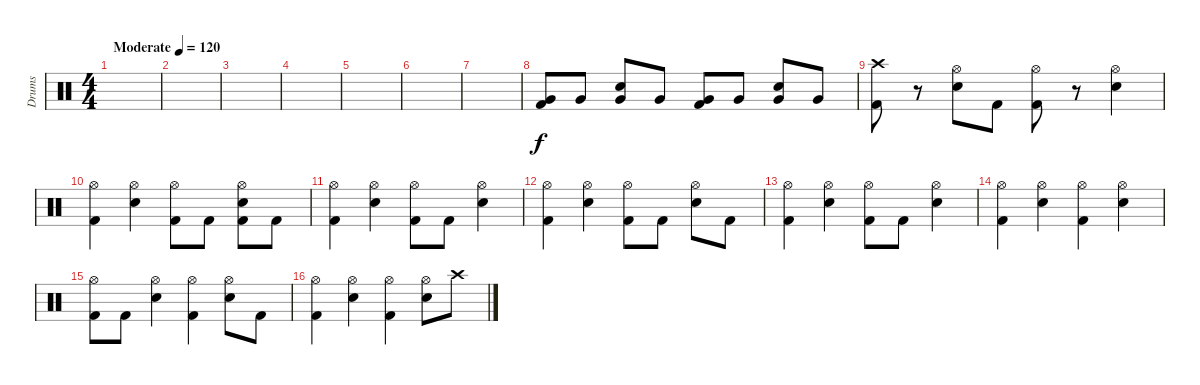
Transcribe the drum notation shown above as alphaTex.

\track ("Drums" "Drums") {instrument percussion}
\staff {score}
\articulation defaults
\ts (4 4)
\tempo (120 "Moderate")
\clef neutral
\ks c
|
|
|
|
|
|
|
("Very Low Tom (hit)" "Kick (hit) 2").8 "Very Low Tom (hit)".8 ("Very Low Tom (hit)" "Electric Snare (hit)").8 "Very Low Tom (hit)".8 ("Very Low Tom (hit)" "Kick (hit) 2").8 "Very Low Tom (hit)".8 ("Very Low Tom (hit)" "Electric Snare (hit)").8 "Very Low Tom (hit)".8 |
("Crash high (hit)" "Kick (hit) 2").8 r.8 ("Hi-Hat (open)" "Electric Snare (hit)").8 "Kick (hit) 2".8 ("Hi-Hat (open)" "Kick (hit) 2").8 r.8 ("Hi-Hat (open)" "Electric Snare (hit)").4 |
("Hi-Hat (open)" "Kick (hit) 2").4 ("Hi-Hat (open)" "Electric Snare (hit)").4 ("Hi-Hat (open)" "Kick (hit) 2").8 "Kick (hit) 2".8 ("Hi-Hat (open)" "Electric Snare (hit)" "Kick (hit) 2").8 "Kick (hit) 2".8 |
("Hi-Hat (open)" "Kick (hit) 2").4 ("Hi-Hat (open)" "Electric Snare (hit)").4 ("Hi-Hat (open)" "Kick (hit) 2").8 "Kick (hit) 2".8 ("Hi-Hat (open)" "Electric Snare (hit)").4 |
("Hi-Hat (open)" "Kick (hit) 2").4 ("Hi-Hat (open)" "Electric Snare (hit)").4 ("Hi-Hat (open)" "Kick (hit) 2").8 "Kick (hit) 2".8 ("Hi-Hat (open)" "Electric Snare (hit)").8 "Kick (hit) 2".8 |
("Hi-Hat (open)" "Kick (hit) 2").4 ("Hi-Hat (open)" "Electric Snare (hit)").4 ("Hi-Hat (open)" "Kick (hit) 2").8 "Kick (hit) 2".8 ("Hi-Hat (open)" "Electric Snare (hit)").4 |
("Hi-Hat (open)" "Kick (hit) 2").4 ("Hi-Hat (open)" "Electric Snare (hit)").4 ("Hi-Hat (open)" "Kick (hit) 2").4 ("Hi-Hat (open)" "Electric Snare (hit)").4 |
("Hi-Hat (open)" "Kick (hit) 2").8 "Kick (hit) 2".8 ("Hi-Hat (open)" "Electric Snare (hit)").4 ("Hi-Hat (open)" "Kick (hit) 2").4 ("Hi-Hat (open)" "Electric Snare (hit)").8 "Kick (hit) 2".8 |
("Hi-Hat (open)" "Kick (hit) 2").4 ("Hi-Hat (open)" "Electric Snare (hit)").4 ("Hi-Hat (open)" "Kick (hit) 2").4 ("Hi-Hat (open)" "Electric Snare (hit)").8 "Crash high (hit)".8
